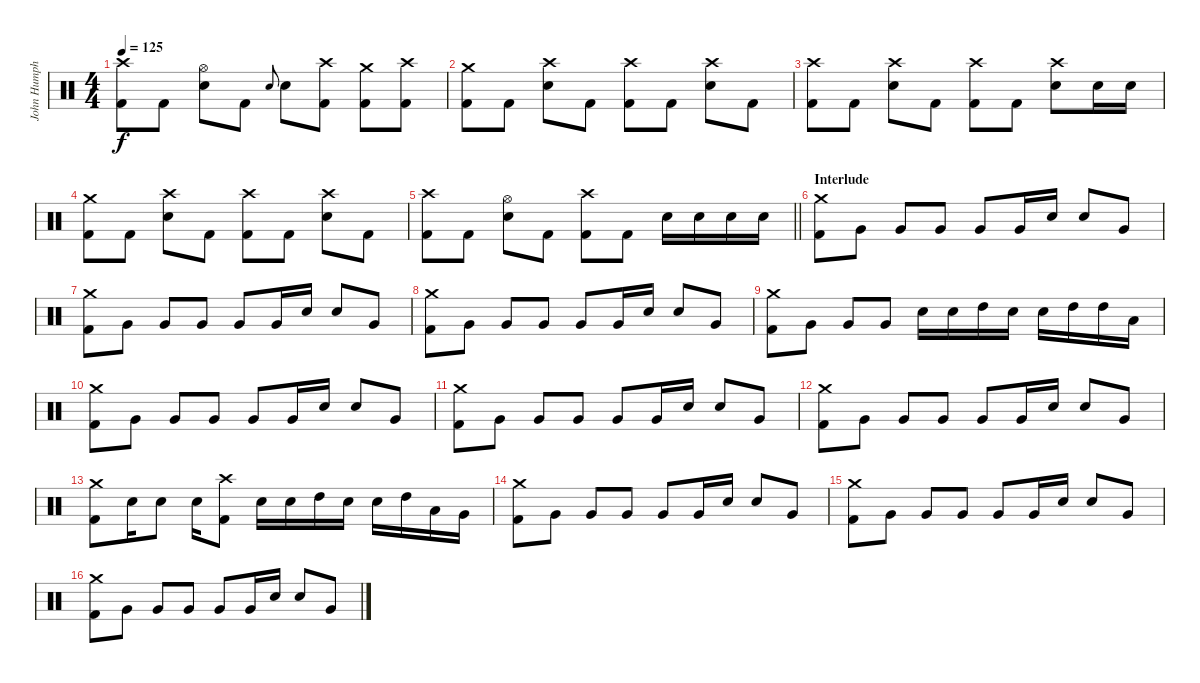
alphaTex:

\track ("John Humphrey - Drums" "John Humph") {instrument percussion}
\staff {score}
\articulation defaults
\ts (4 4)
\tempo 125
\clef neutral
\ks c
("Crash high (hit)" "Kick (hit) 2").8{dy f} "Kick (hit) 2".8 ("Hi-Hat (open)" "Electric Snare (hit)").8 "Kick (hit) 2".8 "Electric Snare (hit)".8{gr onbeat} "Electric Snare (hit)".8 ("Crash high (hit)" "Kick (hit) 2").8 ("Crash medium (hit)" "Kick (hit) 2").8 ("Crash high (hit)" "Kick (hit) 2").8 |
("Crash medium (hit)" "Kick (hit) 2").8 "Kick (hit) 2".8 ("Crash high (hit)" "Electric Snare (hit)").8 "Kick (hit) 2".8 ("Crash high (hit)" "Kick (hit) 2").8 "Kick (hit) 2".8 ("Crash high (hit)" "Electric Snare (hit)").8 "Kick (hit) 2".8 |
("Crash high (hit)" "Kick (hit) 2").8 "Kick (hit) 2".8 ("Crash high (hit)" "Electric Snare (hit)").8 "Kick (hit) 2".8 ("Crash high (hit)" "Kick (hit) 2").8 "Kick (hit) 2".8 ("Crash high (hit)" "Electric Snare (hit)").8 "Electric Snare (hit)".16 "Electric Snare (hit)".16 |
("Crash medium (hit)" "Kick (hit) 2").8 "Kick (hit) 2".8 ("Crash high (hit)" "Electric Snare (hit)").8 "Kick (hit) 2".8 ("Crash high (hit)" "Kick (hit) 2").8 "Kick (hit) 2".8 ("Crash high (hit)" "Electric Snare (hit)").8 "Kick (hit) 2".8 |
\barLineRight lightlight
("Crash high (hit)" "Kick (hit) 2").8 "Kick (hit) 2".8 ("Hi-Hat (open)" "Electric Snare (hit)").8 "Kick (hit) 2".8 ("Crash high (hit)" "Kick (hit) 2").8 "Kick (hit) 2".8 "Electric Snare (hit)".16 "Electric Snare (hit)".16 "Electric Snare (hit)".16 "Electric Snare (hit)".16 |
\section ("" "Interlude")
("Crash medium (hit)" "Kick (hit) 2").8 "Very Low Tom (hit)".8 "Very Low Tom (hit)".8 "Very Low Tom (hit)".8 "Very Low Tom (hit)".8 "Very Low Tom (hit)".16 "Electric Snare (hit)".16 "Electric Snare (hit)".8 "Very Low Tom (hit)".8 |
("Crash medium (hit)" "Kick (hit) 2").8 "Very Low Tom (hit)".8 "Very Low Tom (hit)".8 "Very Low Tom (hit)".8 "Very Low Tom (hit)".8 "Very Low Tom (hit)".16 "Electric Snare (hit)".16 "Electric Snare (hit)".8 "Very Low Tom (hit)".8 |
("Crash medium (hit)" "Kick (hit) 2").8 "Very Low Tom (hit)".8 "Very Low Tom (hit)".8 "Very Low Tom (hit)".8 "Very Low Tom (hit)".8 "Very Low Tom (hit)".16 "Electric Snare (hit)".16 "Electric Snare (hit)".8 "Very Low Tom (hit)".8 |
("Crash medium (hit)" "Kick (hit) 2").8 "Very Low Tom (hit)".8 "Very Low Tom (hit)".8 "Very Low Tom (hit)".8 "Electric Snare (hit)".16 "Electric Snare (hit)".16 "High Tom (hit)".16 "Electric Snare (hit)".16 "Electric Snare (hit)".16 "High Tom (hit)".16 "High Tom (hit)".16 "Low Tom (hit)".16 |
("Crash medium (hit)" "Kick (hit) 2").8 "Very Low Tom (hit)".8 "Very Low Tom (hit)".8 "Very Low Tom (hit)".8 "Very Low Tom (hit)".8 "Very Low Tom (hit)".16 "Electric Snare (hit)".16 "Electric Snare (hit)".8 "Very Low Tom (hit)".8 |
("Crash medium (hit)" "Kick (hit) 2").8 "Very Low Tom (hit)".8 "Very Low Tom (hit)".8 "Very Low Tom (hit)".8 "Very Low Tom (hit)".8 "Very Low Tom (hit)".16 "Electric Snare (hit)".16 "Electric Snare (hit)".8 "Very Low Tom (hit)".8 |
("Crash medium (hit)" "Kick (hit) 2").8 "Very Low Tom (hit)".8 "Very Low Tom (hit)".8 "Very Low Tom (hit)".8 "Very Low Tom (hit)".8 "Very Low Tom (hit)".16 "Electric Snare (hit)".16 "Electric Snare (hit)".8 "Very Low Tom (hit)".8 |
("Crash medium (hit)" "Kick (hit) 2").8 "Electric Snare (hit)".16 "Electric Snare (hit)".8 "Electric Snare (hit)".16 ("Crash high (hit)" "Kick (hit) 2").8 "Electric Snare (hit)".16 "Electric Snare (hit)".16 "High Tom (hit)".16 "Electric Snare (hit)".16 "Electric Snare (hit)".16 "High Tom (hit)".16 "Low Tom (hit)".16 "Very Low Tom (hit)".16 |
("Crash medium (hit)" "Kick (hit) 2").8 "Very Low Tom (hit)".8 "Very Low Tom (hit)".8 "Very Low Tom (hit)".8 "Very Low Tom (hit)".8 "Very Low Tom (hit)".16 "Electric Snare (hit)".16 "Electric Snare (hit)".8 "Very Low Tom (hit)".8 |
("Crash medium (hit)" "Kick (hit) 2").8 "Very Low Tom (hit)".8 "Very Low Tom (hit)".8 "Very Low Tom (hit)".8 "Very Low Tom (hit)".8 "Very Low Tom (hit)".16 "Electric Snare (hit)".16 "Electric Snare (hit)".8 "Very Low Tom (hit)".8 |
("Crash medium (hit)" "Kick (hit) 2").8 "Very Low Tom (hit)".8 "Very Low Tom (hit)".8 "Very Low Tom (hit)".8 "Very Low Tom (hit)".8 "Very Low Tom (hit)".16 "Electric Snare (hit)".16 "Electric Snare (hit)".8 "Very Low Tom (hit)".8
